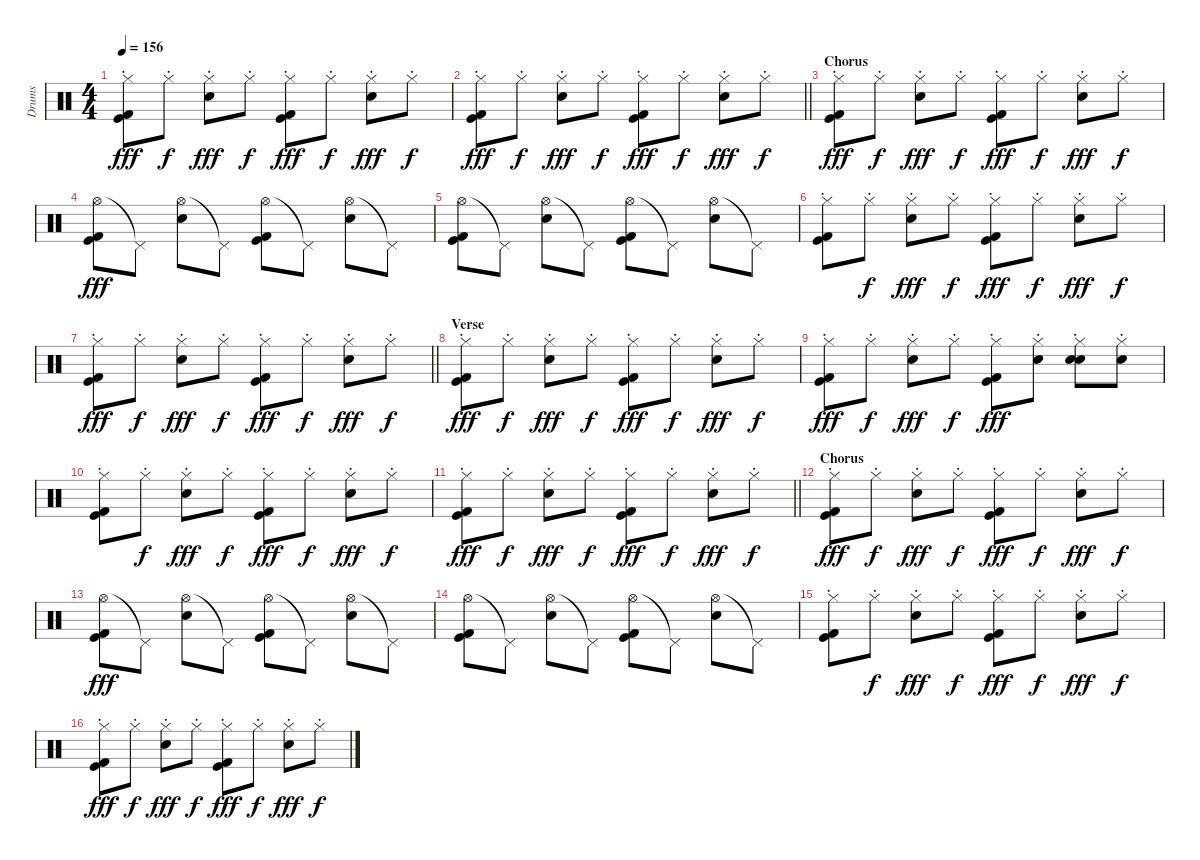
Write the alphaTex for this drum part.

\track ("Drums" "Drums") {instrument percussion}
\staff {score}
\articulation defaults
\ts (4 4)
\tempo 156
\clef neutral
\ks c
("Hi-Hat (closed)"{st} "Kick (hit) 2" "Kick (hit)").8{dy fff} "Hi-Hat (closed)"{st}.8{dy f} ("Hi-Hat (closed)"{st} "Electric Snare (hit)").8{dy fff} "Hi-Hat (closed)"{st}.8{dy f} ("Hi-Hat (closed)"{st} "Kick (hit) 2" "Kick (hit)").8{dy fff} "Hi-Hat (closed)"{st}.8{dy f} ("Hi-Hat (closed)"{st} "Electric Snare (hit)").8{dy fff} "Hi-Hat (closed)"{st}.8{dy f} |
\barLineRight lightlight
("Hi-Hat (closed)"{st} "Kick (hit) 2" "Kick (hit)").8{dy fff} "Hi-Hat (closed)"{st}.8{dy f} ("Hi-Hat (closed)"{st} "Electric Snare (hit)").8{dy fff} "Hi-Hat (closed)"{st}.8{dy f} ("Hi-Hat (closed)"{st} "Kick (hit) 2" "Kick (hit)").8{dy fff} "Hi-Hat (closed)"{st}.8{dy f} ("Hi-Hat (closed)"{st} "Electric Snare (hit)").8{dy fff} "Hi-Hat (closed)"{st}.8{dy f} |
\section ("" "Chorus")
("Hi-Hat (closed)"{st} "Kick (hit) 2" "Kick (hit)").8{dy fff} "Hi-Hat (closed)"{st}.8{dy f} ("Hi-Hat (closed)"{st} "Electric Snare (hit)").8{dy fff} "Hi-Hat (closed)"{st}.8{dy f} ("Hi-Hat (closed)"{st} "Kick (hit) 2" "Kick (hit)").8{dy fff} "Hi-Hat (closed)"{st}.8{dy f} ("Hi-Hat (closed)"{st} "Electric Snare (hit)").8{dy fff} "Hi-Hat (closed)"{st}.8{dy f} |
("Hi-Hat (open)" "Kick (hit) 2" "Kick (hit)").8{dy fff} "Pedal Hi-Hat (hit)"{t}.8 ("Hi-Hat (open)" "Electric Snare (hit)").8 "Pedal Hi-Hat (hit)"{t}.8 ("Hi-Hat (open)" "Kick (hit) 2" "Kick (hit)").8 "Pedal Hi-Hat (hit)"{t}.8 ("Hi-Hat (open)" "Electric Snare (hit)").8 "Pedal Hi-Hat (hit)"{t}.8 |
("Hi-Hat (open)" "Kick (hit) 2" "Kick (hit)").8 "Pedal Hi-Hat (hit)"{t}.8 ("Hi-Hat (open)" "Electric Snare (hit)").8 "Pedal Hi-Hat (hit)"{t}.8 ("Hi-Hat (open)" "Kick (hit) 2" "Kick (hit)").8 "Pedal Hi-Hat (hit)"{t}.8 ("Hi-Hat (open)" "Electric Snare (hit)").8 "Pedal Hi-Hat (hit)"{t}.8 |
("Hi-Hat (closed)"{st} "Kick (hit) 2" "Kick (hit)").8 "Hi-Hat (closed)"{st}.8{dy f} ("Hi-Hat (closed)"{st} "Electric Snare (hit)").8{dy fff} "Hi-Hat (closed)"{st}.8{dy f} ("Hi-Hat (closed)"{st} "Kick (hit) 2" "Kick (hit)").8{dy fff} "Hi-Hat (closed)"{st}.8{dy f} ("Hi-Hat (closed)"{st} "Electric Snare (hit)").8{dy fff} "Hi-Hat (closed)"{st}.8{dy f} |
\barLineRight lightlight
("Hi-Hat (closed)"{st} "Kick (hit) 2" "Kick (hit)").8{dy fff} "Hi-Hat (closed)"{st}.8{dy f} ("Hi-Hat (closed)"{st} "Electric Snare (hit)").8{dy fff} "Hi-Hat (closed)"{st}.8{dy f} ("Hi-Hat (closed)"{st} "Kick (hit) 2" "Kick (hit)").8{dy fff} "Hi-Hat (closed)"{st}.8{dy f} ("Hi-Hat (closed)"{st} "Electric Snare (hit)").8{dy fff} "Hi-Hat (closed)"{st}.8{dy f} |
\section ("" "Verse")
("Hi-Hat (closed)"{st} "Kick (hit) 2" "Kick (hit)").8{dy fff} "Hi-Hat (closed)"{st}.8{dy f} ("Hi-Hat (closed)"{st} "Electric Snare (hit)").8{dy fff} "Hi-Hat (closed)"{st}.8{dy f} ("Hi-Hat (closed)"{st} "Kick (hit) 2" "Kick (hit)").8{dy fff} "Hi-Hat (closed)"{st}.8{dy f} ("Hi-Hat (closed)"{st} "Electric Snare (hit)").8{dy fff} "Hi-Hat (closed)"{st}.8{dy f} |
("Hi-Hat (closed)"{st} "Kick (hit) 2" "Kick (hit)").8{dy fff} "Hi-Hat (closed)"{st}.8{dy f} ("Hi-Hat (closed)"{st} "Electric Snare (hit)").8{dy fff} "Hi-Hat (closed)"{st}.8{dy f} ("Hi-Hat (closed)"{st} "Kick (hit) 2" "Kick (hit)").8{dy fff} ("Hi-Hat (closed)"{st} "Hand Clap (hit)").8 ("Hi-Hat (closed)"{st} "Hand Clap (hit)" "Electric Snare (hit)").8 ("Hi-Hat (closed)"{st} "Hand Clap (hit)").8 |
("Hi-Hat (closed)"{st} "Kick (hit) 2" "Kick (hit)").8 "Hi-Hat (closed)"{st}.8{dy f} ("Hi-Hat (closed)"{st} "Electric Snare (hit)").8{dy fff} "Hi-Hat (closed)"{st}.8{dy f} ("Hi-Hat (closed)"{st} "Kick (hit) 2" "Kick (hit)").8{dy fff} "Hi-Hat (closed)"{st}.8{dy f} ("Hi-Hat (closed)"{st} "Electric Snare (hit)").8{dy fff} "Hi-Hat (closed)"{st}.8{dy f} |
\barLineRight lightlight
("Hi-Hat (closed)"{st} "Kick (hit) 2" "Kick (hit)").8{dy fff} "Hi-Hat (closed)"{st}.8{dy f} ("Hi-Hat (closed)"{st} "Electric Snare (hit)").8{dy fff} "Hi-Hat (closed)"{st}.8{dy f} ("Hi-Hat (closed)"{st} "Kick (hit) 2" "Kick (hit)").8{dy fff} "Hi-Hat (closed)"{st}.8{dy f} ("Hi-Hat (closed)"{st} "Electric Snare (hit)").8{dy fff} "Hi-Hat (closed)"{st}.8{dy f} |
\section ("" "Chorus")
("Hi-Hat (closed)"{st} "Kick (hit) 2" "Kick (hit)").8{dy fff} "Hi-Hat (closed)"{st}.8{dy f} ("Hi-Hat (closed)"{st} "Electric Snare (hit)").8{dy fff} "Hi-Hat (closed)"{st}.8{dy f} ("Hi-Hat (closed)"{st} "Kick (hit) 2" "Kick (hit)").8{dy fff} "Hi-Hat (closed)"{st}.8{dy f} ("Hi-Hat (closed)"{st} "Electric Snare (hit)").8{dy fff} "Hi-Hat (closed)"{st}.8{dy f} |
("Hi-Hat (open)" "Kick (hit) 2" "Kick (hit)").8{dy fff} "Pedal Hi-Hat (hit)"{t}.8 ("Hi-Hat (open)" "Electric Snare (hit)").8 "Pedal Hi-Hat (hit)"{t}.8 ("Hi-Hat (open)" "Kick (hit) 2" "Kick (hit)").8 "Pedal Hi-Hat (hit)"{t}.8 ("Hi-Hat (open)" "Electric Snare (hit)").8 "Pedal Hi-Hat (hit)"{t}.8 |
("Hi-Hat (open)" "Kick (hit) 2" "Kick (hit)").8 "Pedal Hi-Hat (hit)"{t}.8 ("Hi-Hat (open)" "Electric Snare (hit)").8 "Pedal Hi-Hat (hit)"{t}.8 ("Hi-Hat (open)" "Kick (hit) 2" "Kick (hit)").8 "Pedal Hi-Hat (hit)"{t}.8 ("Hi-Hat (open)" "Electric Snare (hit)").8 "Pedal Hi-Hat (hit)"{t}.8 |
("Hi-Hat (closed)"{st} "Kick (hit) 2" "Kick (hit)").8 "Hi-Hat (closed)"{st}.8{dy f} ("Hi-Hat (closed)"{st} "Electric Snare (hit)").8{dy fff} "Hi-Hat (closed)"{st}.8{dy f} ("Hi-Hat (closed)"{st} "Kick (hit) 2" "Kick (hit)").8{dy fff} "Hi-Hat (closed)"{st}.8{dy f} ("Hi-Hat (closed)"{st} "Electric Snare (hit)").8{dy fff} "Hi-Hat (closed)"{st}.8{dy f} |
("Hi-Hat (closed)"{st} "Kick (hit) 2" "Kick (hit)").8{dy fff} "Hi-Hat (closed)"{st}.8{dy f} ("Hi-Hat (closed)"{st} "Electric Snare (hit)").8{dy fff} "Hi-Hat (closed)"{st}.8{dy f} ("Hi-Hat (closed)"{st} "Kick (hit) 2" "Kick (hit)").8{dy fff} "Hi-Hat (closed)"{st}.8{dy f} ("Hi-Hat (closed)"{st} "Electric Snare (hit)").8{dy fff} "Hi-Hat (closed)"{st}.8{dy f}
